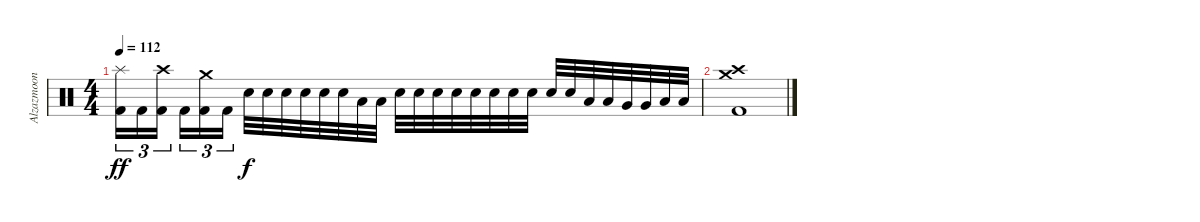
\track ("Alzazmoon" "Alzazmoon") {instrument percussion}
\staff {score}
\articulation defaults
\ts (4 4)
\tempo 112
\clef neutral
\ks c
("Splash (hit)" "Kick (hit) 2").16{tu (3 2) dy ff} "Kick (hit) 2".16{tu (3 2)} ("Crash high (hit)" "Kick (hit) 2").16{tu (3 2) beam splitsecondary} "Kick (hit) 2".16{tu (3 2)} ("Crash medium (hit)" "Kick (hit) 2").16{tu (3 2)} "Kick (hit) 2".16{tu (3 2)} "Snare (hit) 2".32{dy f} "Snare (hit) 2".32 "Snare (hit) 2".32 "Snare (hit) 2".32 "Snare (hit) 2".32 "Snare (hit) 2".32 "Low Tom (hit)".32 "Low Tom (hit)".32 "Snare (hit) 2".32 "Snare (hit) 2".32 "Snare (hit) 2".32 "Snare (hit) 2".32 "Snare (hit) 2".32 "Snare (hit) 2".32 "Snare (hit) 2".32 "Snare (hit) 2".32 "Snare (hit) 2".32 "Snare (hit) 2".32 "Low Tom (hit)".32 "Low Tom (hit)".32 "Very Low Tom (hit)".32 "Very Low Tom (hit)".32 "Low Floor Tom (hit)".32 "Low Floor Tom (hit)".32 |
("Crash medium (hit)" "Crash high (hit)" "Kick (hit) 2").1
